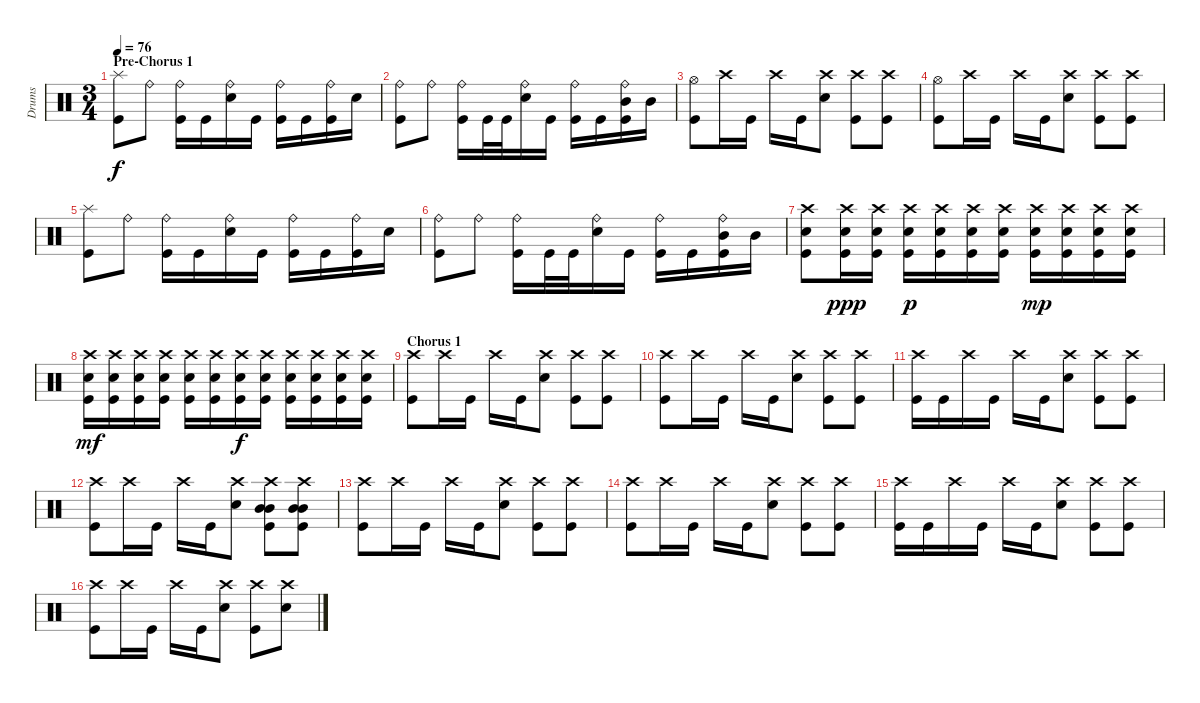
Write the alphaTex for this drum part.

\track ("Drums" "Drums") {instrument percussion}
\staff {score}
\articulation defaults
\ts (3 4)
\section ("" "Pre-Chorus 1")
\tempo 76
\clef neutral
\ks c
("Splash (hit)" "Kick (hit)").8{dy f} "Ride (bell)".8 ("Ride (bell)" "Kick (hit)").16 "Kick (hit)".16 ("Ride (bell)" "Snare (hit) 2").16 "Kick (hit)".16 ("Ride (bell)" "Kick (hit)").16 "Kick (hit)".16 ("Ride (bell)" "Kick (hit)").16 "Snare (hit) 2".16 |
("Ride (bell)" "Kick (hit)").8 "Ride (bell)".8 ("Ride (bell)" "Kick (hit)").16 "Kick (hit)".32 "Kick (hit)".32 ("Ride (bell)" "Snare (hit) 2").16 "Kick (hit)".16 ("Ride (bell)" "Kick (hit)").16 "Kick (hit)".16 ("Ride (bell)" "Mid Tom (hit)" "Kick (hit)").16 "Mid Tom (hit)".16 |
("Hi-Hat (open)" "Kick (hit)").8 "Crash high (hit)".16 "Kick (hit)".16 "Crash high (hit)".16 "Kick (hit)".16 ("Crash high (hit)" "Snare (hit) 2").8 ("Crash high (hit)" "Kick (hit)").8 ("Crash high (hit)" "Kick (hit)").8 |
("Hi-Hat (open)" "Kick (hit)").8 "Crash high (hit)".16 "Kick (hit)".16 "Crash high (hit)".16 "Kick (hit)".16 ("Crash high (hit)" "Snare (hit) 2").8 ("Crash high (hit)" "Kick (hit)").8 ("Crash high (hit)" "Kick (hit)").8 |
("Splash (hit)" "Kick (hit)").8 "Ride (bell)".8 ("Ride (bell)" "Kick (hit)").16 "Kick (hit)".16 ("Ride (bell)" "Snare (hit) 2").16 "Kick (hit)".16 ("Ride (bell)" "Kick (hit)").16 "Kick (hit)".16 ("Ride (bell)" "Kick (hit)").16 "Snare (hit) 2".16 |
("Ride (bell)" "Kick (hit)").8 "Ride (bell)".8 ("Ride (bell)" "Kick (hit)").16 "Kick (hit)".32 "Kick (hit)".32 ("Ride (bell)" "Snare (hit) 2").16 "Kick (hit)".16 ("Ride (bell)" "Kick (hit)").16 "Kick (hit)".16 ("Ride (bell)" "Mid Tom (hit)" "Kick (hit)").16 "Mid Tom (hit)".16 |
("Crash high (hit)" "Snare (hit) 2" "Kick (hit)").8 ("Crash high (hit)" "Snare (hit) 2" "Kick (hit)").16{dy ppp} ("Crash high (hit)" "Snare (hit) 2" "Kick (hit)").16 ("Crash high (hit)" "Snare (hit) 2" "Kick (hit)").16{dy p} ("Crash high (hit)" "Snare (hit) 2" "Kick (hit)").16 ("Crash high (hit)" "Snare (hit) 2" "Kick (hit)").16 ("Crash high (hit)" "Snare (hit) 2" "Kick (hit)").16 ("Crash high (hit)" "Snare (hit) 2" "Kick (hit)").16{dy mp} ("Crash high (hit)" "Snare (hit) 2" "Kick (hit)").16 ("Crash high (hit)" "Snare (hit) 2" "Kick (hit)").16 ("Crash high (hit)" "Snare (hit) 2" "Kick (hit)").16 |
("Crash high (hit)" "Snare (hit) 2" "Kick (hit)").16{dy mf} ("Crash high (hit)" "Snare (hit) 2" "Kick (hit)").16 ("Crash high (hit)" "Snare (hit) 2" "Kick (hit)").16 ("Crash high (hit)" "Snare (hit) 2" "Kick (hit)").16 ("Crash high (hit)" "Snare (hit) 2" "Kick (hit)").16 ("Crash high (hit)" "Snare (hit) 2" "Kick (hit)").16 ("Crash high (hit)" "Snare (hit) 2" "Kick (hit)").16{dy f} ("Crash high (hit)" "Snare (hit) 2" "Kick (hit)").16 ("Crash high (hit)" "Snare (hit) 2" "Kick (hit)").16 ("Crash high (hit)" "Snare (hit) 2" "Kick (hit)").16 ("Crash high (hit)" "Snare (hit) 2" "Kick (hit)").16 ("Crash high (hit)" "Snare (hit) 2" "Kick (hit)").16 |
\section ("" "Chorus 1")
("Crash high (hit)" "Kick (hit)").8 "Crash high (hit)".16 "Kick (hit)".16 "Crash high (hit)".16 "Kick (hit)".16 ("Crash high (hit)" "Snare (hit) 2").8 ("Crash high (hit)" "Kick (hit)").8 ("Crash high (hit)" "Kick (hit)").8 |
("Crash high (hit)" "Kick (hit)").8 "Crash high (hit)".16 "Kick (hit)".16 "Crash high (hit)".16 "Kick (hit)".16 ("Crash high (hit)" "Snare (hit) 2").8 ("Crash high (hit)" "Kick (hit)").8 ("Crash high (hit)" "Kick (hit)").8 |
("Crash high (hit)" "Kick (hit)").16 "Kick (hit)".16 "Crash high (hit)".16 "Kick (hit)".16 "Crash high (hit)".16 "Kick (hit)".16 ("Crash high (hit)" "Snare (hit) 2").8 ("Crash high (hit)" "Kick (hit)").8 ("Crash high (hit)" "Kick (hit)").8 |
("Crash high (hit)" "Kick (hit)").8 "Crash high (hit)".16 "Kick (hit)".16 "Crash high (hit)".16 "Kick (hit)".16 ("Crash high (hit)" "Snare (hit) 2").8 ("Crash high (hit)" "Mid Tom (hit)" "Mid Tom (hit)" "Kick (hit)").8 ("Crash high (hit)" "Mid Tom (hit)" "Mid Tom (hit)" "Kick (hit)").8 |
("Crash high (hit)" "Kick (hit)").8 "Crash high (hit)".16 "Kick (hit)".16 "Crash high (hit)".16 "Kick (hit)".16 ("Crash high (hit)" "Snare (hit) 2").8 ("Crash high (hit)" "Kick (hit)").8 ("Crash high (hit)" "Kick (hit)").8 |
("Crash high (hit)" "Kick (hit)").8 "Crash high (hit)".16 "Kick (hit)".16 "Crash high (hit)".16 "Kick (hit)".16 ("Crash high (hit)" "Snare (hit) 2").8 ("Crash high (hit)" "Kick (hit)").8 ("Crash high (hit)" "Kick (hit)").8 |
("Crash high (hit)" "Kick (hit)").16 "Kick (hit)".16 "Crash high (hit)".16 "Kick (hit)".16 "Crash high (hit)".16 "Kick (hit)".16 ("Crash high (hit)" "Snare (hit) 2").8 ("Crash high (hit)" "Kick (hit)").8 ("Crash high (hit)" "Kick (hit)").8 |
("Crash high (hit)" "Kick (hit)").8 "Crash high (hit)".16 "Kick (hit)".16 "Crash high (hit)".16 "Kick (hit)".16 ("Crash high (hit)" "Snare (hit) 2").8 ("Crash high (hit)" "Kick (hit)").8 ("Crash high (hit)" "Snare (hit) 2").8
